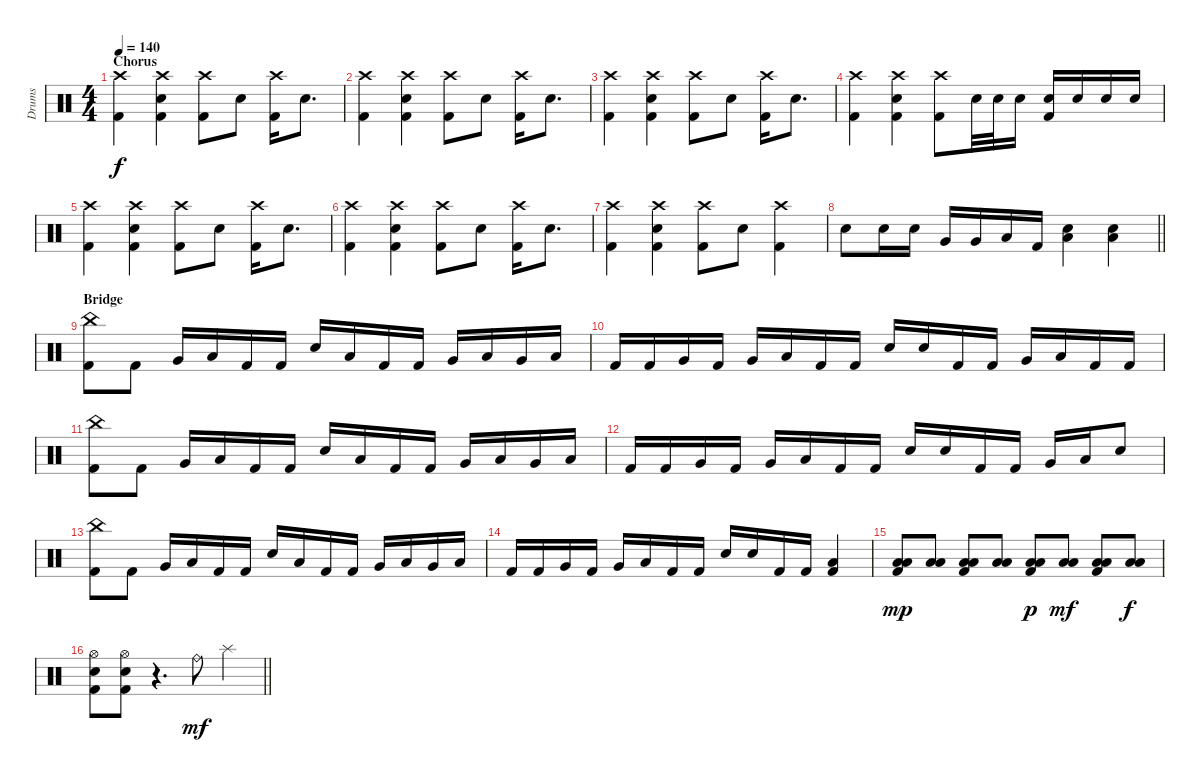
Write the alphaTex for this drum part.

\track ("Drums" "Drums") {instrument percussion}
\staff {score}
\articulation defaults
\ts (4 4)
\section ("" "Chorus")
\tempo 140
\clef neutral
\ks c
("Crash high (hit)" "Kick (hit) 2").4{dy f} ("Crash high (hit)" "Electric Snare (hit)" "Kick (hit) 2").4 ("Crash high (hit)" "Kick (hit) 2").8 "Electric Snare (hit)".8 ("Crash high (hit)" "Kick (hit) 2").16 "Electric Snare (hit)".8{d} |
("Crash high (hit)" "Kick (hit) 2").4 ("Crash high (hit)" "Electric Snare (hit)" "Kick (hit) 2").4 ("Crash high (hit)" "Kick (hit) 2").8 "Electric Snare (hit)".8 ("Crash high (hit)" "Kick (hit) 2").16 "Electric Snare (hit)".8{d} |
("Crash high (hit)" "Kick (hit) 2").4 ("Crash high (hit)" "Electric Snare (hit)" "Kick (hit) 2").4 ("Crash high (hit)" "Kick (hit) 2").8 "Electric Snare (hit)".8 ("Crash high (hit)" "Kick (hit) 2").16 "Electric Snare (hit)".8{d} |
("Crash high (hit)" "Kick (hit) 2").4 ("Crash high (hit)" "Electric Snare (hit)" "Kick (hit) 2").4 ("Crash high (hit)" "Kick (hit) 2").8 "Electric Snare (hit)".32 "Electric Snare (hit)".32 "Electric Snare (hit)".16 ("Electric Snare (hit)" "Kick (hit) 2").16 "Electric Snare (hit)".16 "Electric Snare (hit)".16 "Electric Snare (hit)".16 |
("Crash high (hit)" "Kick (hit) 2").4 ("Crash high (hit)" "Electric Snare (hit)" "Kick (hit) 2").4 ("Crash high (hit)" "Kick (hit) 2").8 "Electric Snare (hit)".8 ("Crash high (hit)" "Kick (hit) 2").16 "Electric Snare (hit)".8{d} |
("Crash high (hit)" "Kick (hit) 2").4 ("Crash high (hit)" "Electric Snare (hit)" "Kick (hit) 2").4 ("Crash high (hit)" "Kick (hit) 2").8 "Electric Snare (hit)".8 ("Crash high (hit)" "Kick (hit) 2").16 "Electric Snare (hit)".8{d} |
("Crash high (hit)" "Kick (hit) 2").4 ("Crash high (hit)" "Electric Snare (hit)" "Kick (hit) 2").4 ("Crash high (hit)" "Kick (hit) 2").8 "Electric Snare (hit)".8 ("Crash high (hit)" "Kick (hit) 2").4 |
\barLineRight lightlight "Electric Snare (hit)".8 "Electric Snare (hit)".16 "Electric Snare (hit)".16 "Very Low Tom (hit)".16 "Very Low Tom (hit)".16 "Low Floor Tom (hit)".16 "Kick (hit) 2".16
("Electric Snare (hit)" "Low Floor Tom (hit)").4 ("Electric Snare (hit)" "Low Floor Tom (hit)").4 |
\section ("" "Bridge")
("China (hit)" "Kick (hit) 2").8 "Kick (hit) 2".8 "Very Low Tom (hit)".16 "Low Floor Tom (hit)".16 "Kick (hit) 2".16 "Kick (hit) 2".16 "Electric Snare (hit)".16 "Low Floor Tom (hit)".16 "Kick (hit) 2".16 "Kick (hit) 2".16 "Very Low Tom (hit)".16 "Low Floor Tom (hit)".16 "Very Low Tom (hit)".16 "Low Floor Tom (hit)".16 |
"Kick (hit) 2".16 "Kick (hit) 2".16 "Very Low Tom (hit)".16 "Kick (hit) 2".16 "Very Low Tom (hit)".16 "Low Floor Tom (hit)".16 "Kick (hit) 2".16 "Kick (hit) 2".16 "Electric Snare (hit)".16 "Electric Snare (hit)".16 "Kick (hit) 2".16 "Kick (hit) 2".16 "Very Low Tom (hit)".16 "Low Floor Tom (hit)".16 "Kick (hit) 2".16 "Kick (hit) 2".16 |
("China (hit)" "Kick (hit) 2").8 "Kick (hit) 2".8 "Very Low Tom (hit)".16 "Low Floor Tom (hit)".16 "Kick (hit) 2".16 "Kick (hit) 2".16 "Electric Snare (hit)".16 "Low Floor Tom (hit)".16 "Kick (hit) 2".16 "Kick (hit) 2".16 "Very Low Tom (hit)".16 "Low Floor Tom (hit)".16 "Very Low Tom (hit)".16 "Low Floor Tom (hit)".16 |
"Kick (hit) 2".16 "Kick (hit) 2".16 "Very Low Tom (hit)".16 "Kick (hit) 2".16 "Very Low Tom (hit)".16 "Low Floor Tom (hit)".16 "Kick (hit) 2".16 "Kick (hit) 2".16 "Electric Snare (hit)".16 "Electric Snare (hit)".16 "Kick (hit) 2".16 "Kick (hit) 2".16 "Very Low Tom (hit)".16 "Low Floor Tom (hit)".16 "Electric Snare (hit)".8 |
("China (hit)" "Kick (hit) 2").8 "Kick (hit) 2".8 "Very Low Tom (hit)".16 "Low Floor Tom (hit)".16 "Kick (hit) 2".16 "Kick (hit) 2".16 "Electric Snare (hit)".16 "Low Floor Tom (hit)".16 "Kick (hit) 2".16 "Kick (hit) 2".16 "Very Low Tom (hit)".16 "Low Floor Tom (hit)".16 "Very Low Tom (hit)".16 "Low Floor Tom (hit)".16 |
"Kick (hit) 2".16 "Kick (hit) 2".16 "Very Low Tom (hit)".16 "Kick (hit) 2".16 "Very Low Tom (hit)".16 "Low Floor Tom (hit)".16 "Kick (hit) 2".16 "Kick (hit) 2".16 "Electric Snare (hit)".16 "Electric Snare (hit)".16 "Kick (hit) 2".16 "Kick (hit) 2".16 ("Low Floor Tom (hit)" "Kick (hit) 2").4 |
("Low Tom (hit)" "Low Floor Tom (hit)" "Kick (hit) 2").8{dy mp} ("Low Tom (hit)" "Low Floor Tom (hit)").8 ("Low Tom (hit)" "Low Floor Tom (hit)" "Kick (hit) 2").8 ("Low Tom (hit)" "Low Floor Tom (hit)").8 ("Low Tom (hit)" "Low Floor Tom (hit)" "Kick (hit) 2").8{dy p} ("Low Tom (hit)" "Low Floor Tom (hit)").8{dy mf} ("Low Tom (hit)" "Low Floor Tom (hit)" "Kick (hit) 2").8 ("Low Tom (hit)" "Low Floor Tom (hit)").8{dy f} |
\barLineRight lightlight
("Hi-Hat (open)" "Electric Snare (hit)" "Kick (hit) 2").8 ("Hi-Hat (open)" "Electric Snare (hit)" "Kick (hit) 2").8 r.4{d volume 0} "Ride (bell)".8{dy mf volume 11 balance 0} "Splash (hit)".4{balance 16}
